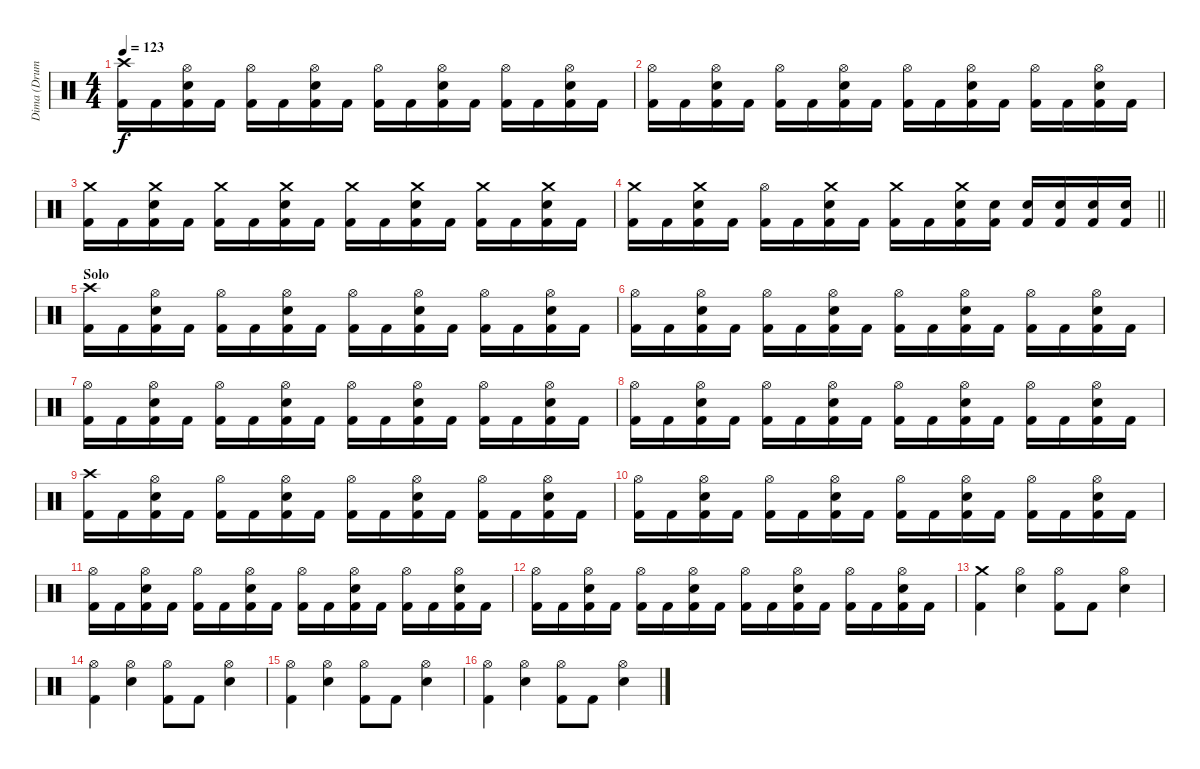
\track ("Dima (Drums)" "Dima (Drum") {instrument percussion}
\staff {score}
\articulation defaults
\ts (4 4)
\tempo 123
\clef neutral
\ks c
("Crash high (hit)" "Kick (hit) 2").16{dy f} "Kick (hit) 2".16 ("Hi-Hat (open)" "Snare (hit) 2" "Kick (hit) 2").16 "Kick (hit) 2".16 ("Hi-Hat (open)" "Kick (hit) 2").16 "Kick (hit) 2".16 ("Hi-Hat (open)" "Snare (hit) 2" "Kick (hit) 2").16 "Kick (hit) 2".16 ("Hi-Hat (open)" "Kick (hit) 2").16 "Kick (hit) 2".16 ("Hi-Hat (open)" "Snare (hit) 2" "Kick (hit) 2").16 "Kick (hit) 2".16 ("Hi-Hat (open)" "Kick (hit) 2").16 "Kick (hit) 2".16 ("Hi-Hat (open)" "Snare (hit) 2" "Kick (hit) 2").16 "Kick (hit) 2".16 |
("Hi-Hat (open)" "Kick (hit) 2").16 "Kick (hit) 2".16 ("Hi-Hat (open)" "Snare (hit) 2" "Kick (hit) 2").16 "Kick (hit) 2".16 ("Hi-Hat (open)" "Kick (hit) 2").16 "Kick (hit) 2".16 ("Hi-Hat (open)" "Snare (hit) 2" "Kick (hit) 2").16 "Kick (hit) 2".16 ("Hi-Hat (open)" "Kick (hit) 2").16 "Kick (hit) 2".16 ("Hi-Hat (open)" "Snare (hit) 2" "Kick (hit) 2").16 "Kick (hit) 2".16 ("Hi-Hat (open)" "Kick (hit) 2").16 "Kick (hit) 2".16 ("Hi-Hat (open)" "Snare (hit) 2" "Kick (hit) 2").16 "Kick (hit) 2".16 |
("Crash medium (hit)" "Kick (hit) 2").16 "Kick (hit) 2".16 ("Crash medium (hit)" "Snare (hit) 2" "Kick (hit) 2").16 "Kick (hit) 2".16 ("Crash medium (hit)" "Kick (hit) 2").16 "Kick (hit) 2".16 ("Crash medium (hit)" "Snare (hit) 2" "Kick (hit) 2").16 "Kick (hit) 2".16 ("Crash medium (hit)" "Kick (hit) 2").16 "Kick (hit) 2".16 ("Crash medium (hit)" "Snare (hit) 2" "Kick (hit) 2").16 "Kick (hit) 2".16 ("Crash medium (hit)" "Kick (hit) 2").16 "Kick (hit) 2".16 ("Crash medium (hit)" "Snare (hit) 2" "Kick (hit) 2").16 "Kick (hit) 2".16 |
\barLineRight lightlight
("Crash medium (hit)" "Kick (hit) 2").16 "Kick (hit) 2".16 ("Crash medium (hit)" "Snare (hit) 2" "Kick (hit) 2").16 "Kick (hit) 2".16 ("Hi-Hat (open)" "Kick (hit) 2").16 "Kick (hit) 2".16 ("Crash medium (hit)" "Snare (hit) 2" "Kick (hit) 2").16 "Kick (hit) 2".16 ("Crash medium (hit)" "Kick (hit) 2").16 "Kick (hit) 2".16 ("Crash medium (hit)" "Snare (hit) 2" "Kick (hit) 2").16 ("Snare (hit) 2" "Kick (hit) 2").16 ("Snare (hit) 2" "Kick (hit) 2").16 ("Snare (hit) 2" "Kick (hit) 2").16 ("Snare (hit) 2" "Kick (hit) 2").16 ("Snare (hit) 2" "Kick (hit) 2").16 |
\section ("" "Solo")
("Crash high (hit)" "Kick (hit) 2").16 "Kick (hit) 2".16 ("Hi-Hat (open)" "Snare (hit) 2" "Kick (hit) 2").16 "Kick (hit) 2".16 ("Hi-Hat (open)" "Kick (hit) 2").16 "Kick (hit) 2".16 ("Hi-Hat (open)" "Snare (hit) 2" "Kick (hit) 2").16 "Kick (hit) 2".16 ("Hi-Hat (open)" "Kick (hit) 2").16 "Kick (hit) 2".16 ("Hi-Hat (open)" "Snare (hit) 2" "Kick (hit) 2").16 "Kick (hit) 2".16 ("Hi-Hat (open)" "Kick (hit) 2").16 "Kick (hit) 2".16 ("Hi-Hat (open)" "Snare (hit) 2" "Kick (hit) 2").16 "Kick (hit) 2".16 |
("Hi-Hat (open)" "Kick (hit) 2").16 "Kick (hit) 2".16 ("Hi-Hat (open)" "Snare (hit) 2" "Kick (hit) 2").16 "Kick (hit) 2".16 ("Hi-Hat (open)" "Kick (hit) 2").16 "Kick (hit) 2".16 ("Hi-Hat (open)" "Snare (hit) 2" "Kick (hit) 2").16 "Kick (hit) 2".16 ("Hi-Hat (open)" "Kick (hit) 2").16 "Kick (hit) 2".16 ("Hi-Hat (open)" "Snare (hit) 2" "Kick (hit) 2").16 "Kick (hit) 2".16 ("Hi-Hat (open)" "Kick (hit) 2").16 "Kick (hit) 2".16 ("Hi-Hat (open)" "Snare (hit) 2" "Kick (hit) 2").16 "Kick (hit) 2".16 |
("Hi-Hat (open)" "Kick (hit) 2").16 "Kick (hit) 2".16 ("Hi-Hat (open)" "Snare (hit) 2" "Kick (hit) 2").16 "Kick (hit) 2".16 ("Hi-Hat (open)" "Kick (hit) 2").16 "Kick (hit) 2".16 ("Hi-Hat (open)" "Snare (hit) 2" "Kick (hit) 2").16 "Kick (hit) 2".16 ("Hi-Hat (open)" "Kick (hit) 2").16 "Kick (hit) 2".16 ("Hi-Hat (open)" "Snare (hit) 2" "Kick (hit) 2").16 "Kick (hit) 2".16 ("Hi-Hat (open)" "Kick (hit) 2").16 "Kick (hit) 2".16 ("Hi-Hat (open)" "Snare (hit) 2" "Kick (hit) 2").16 "Kick (hit) 2".16 |
("Hi-Hat (open)" "Kick (hit) 2").16 "Kick (hit) 2".16 ("Hi-Hat (open)" "Snare (hit) 2" "Kick (hit) 2").16 "Kick (hit) 2".16 ("Hi-Hat (open)" "Kick (hit) 2").16 "Kick (hit) 2".16 ("Hi-Hat (open)" "Snare (hit) 2" "Kick (hit) 2").16 "Kick (hit) 2".16 ("Hi-Hat (open)" "Kick (hit) 2").16 "Kick (hit) 2".16 ("Hi-Hat (open)" "Snare (hit) 2" "Kick (hit) 2").16 "Kick (hit) 2".16 ("Hi-Hat (open)" "Kick (hit) 2").16 "Kick (hit) 2".16 ("Hi-Hat (open)" "Snare (hit) 2" "Kick (hit) 2").16 "Kick (hit) 2".16 |
("Crash high (hit)" "Kick (hit) 2").16 "Kick (hit) 2".16 ("Hi-Hat (open)" "Snare (hit) 2" "Kick (hit) 2").16 "Kick (hit) 2".16 ("Hi-Hat (open)" "Kick (hit) 2").16 "Kick (hit) 2".16 ("Hi-Hat (open)" "Snare (hit) 2" "Kick (hit) 2").16 "Kick (hit) 2".16 ("Hi-Hat (open)" "Kick (hit) 2").16 "Kick (hit) 2".16 ("Hi-Hat (open)" "Snare (hit) 2" "Kick (hit) 2").16 "Kick (hit) 2".16 ("Hi-Hat (open)" "Kick (hit) 2").16 "Kick (hit) 2".16 ("Hi-Hat (open)" "Snare (hit) 2" "Kick (hit) 2").16 "Kick (hit) 2".16 |
("Hi-Hat (open)" "Kick (hit) 2").16 "Kick (hit) 2".16 ("Hi-Hat (open)" "Snare (hit) 2" "Kick (hit) 2").16 "Kick (hit) 2".16 ("Hi-Hat (open)" "Kick (hit) 2").16 "Kick (hit) 2".16 ("Hi-Hat (open)" "Snare (hit) 2" "Kick (hit) 2").16 "Kick (hit) 2".16 ("Hi-Hat (open)" "Kick (hit) 2").16 "Kick (hit) 2".16 ("Hi-Hat (open)" "Snare (hit) 2" "Kick (hit) 2").16 "Kick (hit) 2".16 ("Hi-Hat (open)" "Kick (hit) 2").16 "Kick (hit) 2".16 ("Hi-Hat (open)" "Snare (hit) 2" "Kick (hit) 2").16 "Kick (hit) 2".16 |
("Hi-Hat (open)" "Kick (hit) 2").16 "Kick (hit) 2".16 ("Hi-Hat (open)" "Snare (hit) 2" "Kick (hit) 2").16 "Kick (hit) 2".16 ("Hi-Hat (open)" "Kick (hit) 2").16 "Kick (hit) 2".16 ("Hi-Hat (open)" "Snare (hit) 2" "Kick (hit) 2").16 "Kick (hit) 2".16 ("Hi-Hat (open)" "Kick (hit) 2").16 "Kick (hit) 2".16 ("Hi-Hat (open)" "Snare (hit) 2" "Kick (hit) 2").16 "Kick (hit) 2".16 ("Hi-Hat (open)" "Kick (hit) 2").16 "Kick (hit) 2".16 ("Hi-Hat (open)" "Snare (hit) 2" "Kick (hit) 2").16 "Kick (hit) 2".16 |
("Hi-Hat (open)" "Kick (hit) 2").16 "Kick (hit) 2".16 ("Hi-Hat (open)" "Snare (hit) 2" "Kick (hit) 2").16 "Kick (hit) 2".16 ("Hi-Hat (open)" "Kick (hit) 2").16 "Kick (hit) 2".16 ("Hi-Hat (open)" "Snare (hit) 2" "Kick (hit) 2").16 "Kick (hit) 2".16 ("Hi-Hat (open)" "Kick (hit) 2").16 "Kick (hit) 2".16 ("Hi-Hat (open)" "Snare (hit) 2" "Kick (hit) 2").16 "Kick (hit) 2".16 ("Hi-Hat (open)" "Kick (hit) 2").16 "Kick (hit) 2".16 ("Hi-Hat (open)" "Snare (hit) 2" "Kick (hit) 2").16 "Kick (hit) 2".16 |
("Crash medium (hit)" "Kick (hit) 2").4 ("Hi-Hat (open)" "Snare (hit) 2").4 ("Hi-Hat (open)" "Kick (hit) 2").8 "Kick (hit) 2".8 ("Hi-Hat (open)" "Snare (hit) 2").4 |
("Hi-Hat (open)" "Kick (hit) 2").4 ("Hi-Hat (open)" "Snare (hit) 2").4 ("Hi-Hat (open)" "Kick (hit) 2").8 "Kick (hit) 2".8 ("Hi-Hat (open)" "Snare (hit) 2").4 |
("Hi-Hat (open)" "Kick (hit) 2").4 ("Hi-Hat (open)" "Snare (hit) 2").4 ("Hi-Hat (open)" "Kick (hit) 2").8 "Kick (hit) 2".8 ("Hi-Hat (open)" "Snare (hit) 2").4 |
("Hi-Hat (open)" "Kick (hit) 2").4 ("Hi-Hat (open)" "Snare (hit) 2").4 ("Hi-Hat (open)" "Kick (hit) 2").8 "Kick (hit) 2".8 ("Hi-Hat (open)" "Snare (hit) 2").4
